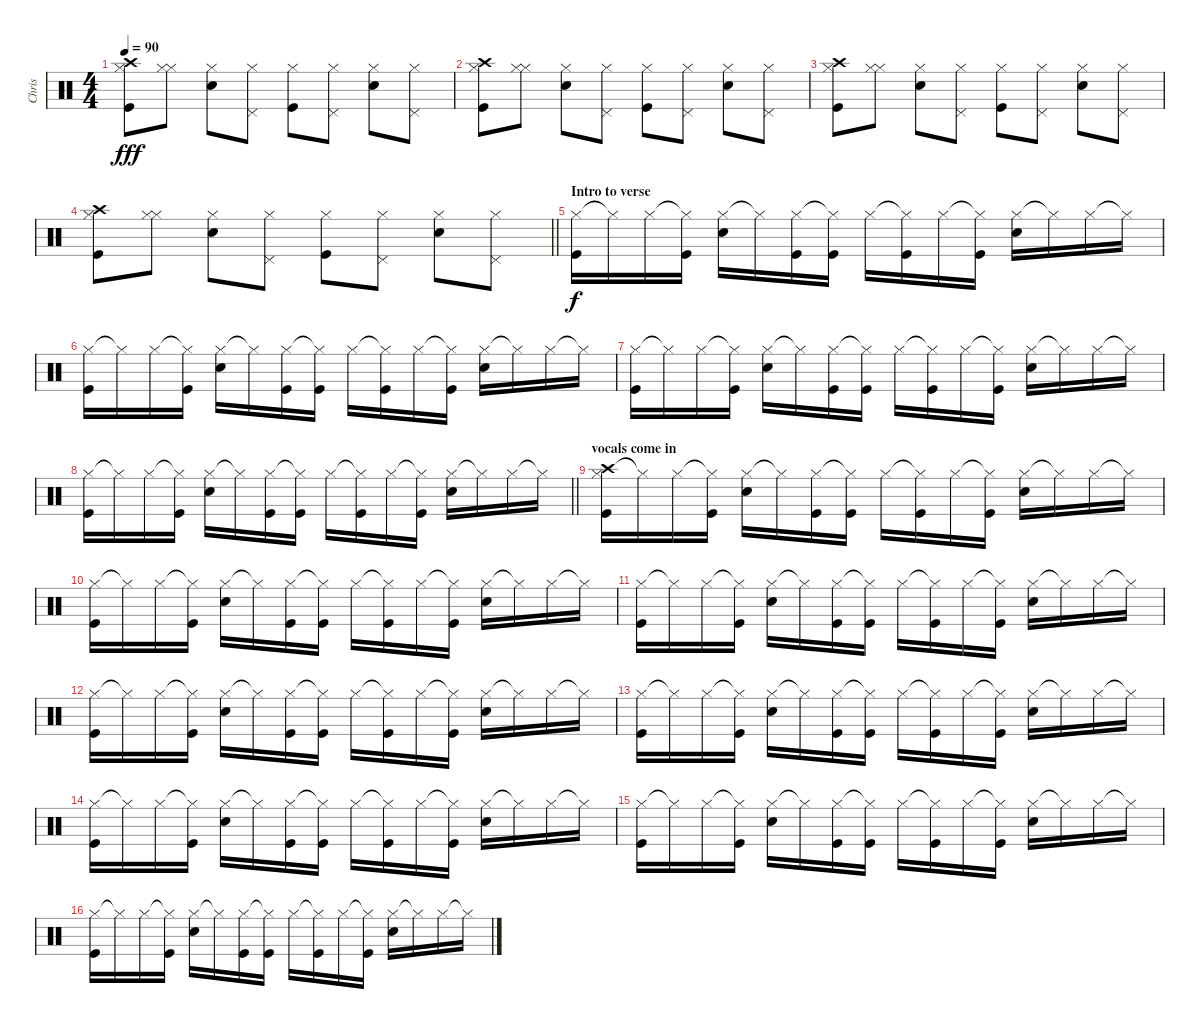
\track ("Chris" "Chris") {instrument percussion}
\staff {score}
\articulation defaults
\ts (4 4)
\tempo 90
\clef neutral
\ks c
("Crash high (hit)" "Hi-Hat (closed)" "Kick (hit)").8{dy fff} ("Hi-Hat (closed)" "Hi-Hat (closed)").8 ("Hi-Hat (closed)" "Snare (hit) 2").8 ("Hi-Hat (closed)" "Pedal Hi-Hat (hit)").8 ("Hi-Hat (closed)" "Kick (hit)").8 ("Hi-Hat (closed)" "Pedal Hi-Hat (hit)").8 ("Hi-Hat (closed)" "Snare (hit) 2").8 ("Hi-Hat (closed)" "Pedal Hi-Hat (hit)").8 |
("Crash high (hit)" "Hi-Hat (closed)" "Kick (hit)").8 ("Hi-Hat (closed)" "Hi-Hat (closed)").8 ("Hi-Hat (closed)" "Snare (hit) 2").8 ("Hi-Hat (closed)" "Pedal Hi-Hat (hit)").8 ("Hi-Hat (closed)" "Kick (hit)").8 ("Hi-Hat (closed)" "Pedal Hi-Hat (hit)").8 ("Hi-Hat (closed)" "Snare (hit) 2").8 ("Hi-Hat (closed)" "Pedal Hi-Hat (hit)").8 |
("Crash high (hit)" "Hi-Hat (closed)" "Kick (hit)").8 ("Hi-Hat (closed)" "Hi-Hat (closed)").8 ("Hi-Hat (closed)" "Snare (hit) 2").8 ("Hi-Hat (closed)" "Pedal Hi-Hat (hit)").8 ("Hi-Hat (closed)" "Kick (hit)").8 ("Hi-Hat (closed)" "Pedal Hi-Hat (hit)").8 ("Hi-Hat (closed)" "Snare (hit) 2").8 ("Hi-Hat (closed)" "Pedal Hi-Hat (hit)").8 |
\barLineRight lightlight
("Crash high (hit)" "Hi-Hat (closed)" "Kick (hit)").8 ("Hi-Hat (closed)" "Hi-Hat (closed)").8 ("Hi-Hat (closed)" "Snare (hit) 2").8 ("Hi-Hat (closed)" "Pedal Hi-Hat (hit)").8 ("Hi-Hat (closed)" "Kick (hit)").8 ("Hi-Hat (closed)" "Pedal Hi-Hat (hit)").8 ("Hi-Hat (closed)" "Snare (hit) 2").8 ("Hi-Hat (closed)" "Pedal Hi-Hat (hit)").8 |
\section ("" "Intro to verse")
("Hi-Hat (closed)" "Kick (hit)").16{dy f} "Hi-Hat (closed)"{t}.16 "Hi-Hat (closed)".16 ("Hi-Hat (closed)"{t} "Kick (hit)").16 ("Hi-Hat (closed)" "Snare (hit) 2").16 "Hi-Hat (closed)"{t}.16 ("Hi-Hat (closed)" "Kick (hit)").16 ("Hi-Hat (closed)"{t} "Kick (hit)").16 "Hi-Hat (closed)".16 ("Hi-Hat (closed)"{t} "Kick (hit)").16 "Hi-Hat (closed)".16 ("Hi-Hat (closed)"{t} "Kick (hit)").16 ("Hi-Hat (closed)" "Snare (hit) 2").16 "Hi-Hat (closed)"{t}.16 "Hi-Hat (closed)".16 "Hi-Hat (closed)"{t}.16 |
("Hi-Hat (closed)" "Kick (hit)").16 "Hi-Hat (closed)"{t}.16 "Hi-Hat (closed)".16 ("Hi-Hat (closed)"{t} "Kick (hit)").16 ("Hi-Hat (closed)" "Snare (hit) 2").16 "Hi-Hat (closed)"{t}.16 ("Hi-Hat (closed)" "Kick (hit)").16 ("Hi-Hat (closed)"{t} "Kick (hit)").16 "Hi-Hat (closed)".16 ("Hi-Hat (closed)"{t} "Kick (hit)").16 "Hi-Hat (closed)".16 ("Hi-Hat (closed)"{t} "Kick (hit)").16 ("Hi-Hat (closed)" "Snare (hit) 2").16 "Hi-Hat (closed)"{t}.16 "Hi-Hat (closed)".16 "Hi-Hat (closed)"{t}.16 |
("Hi-Hat (closed)" "Kick (hit)").16 "Hi-Hat (closed)"{t}.16 "Hi-Hat (closed)".16 ("Hi-Hat (closed)"{t} "Kick (hit)").16 ("Hi-Hat (closed)" "Snare (hit) 2").16 "Hi-Hat (closed)"{t}.16 ("Hi-Hat (closed)" "Kick (hit)").16 ("Hi-Hat (closed)"{t} "Kick (hit)").16 "Hi-Hat (closed)".16 ("Hi-Hat (closed)"{t} "Kick (hit)").16 "Hi-Hat (closed)".16 ("Hi-Hat (closed)"{t} "Kick (hit)").16 ("Hi-Hat (closed)" "Snare (hit) 2").16 "Hi-Hat (closed)"{t}.16 "Hi-Hat (closed)".16 "Hi-Hat (closed)"{t}.16 |
\barLineRight lightlight
("Hi-Hat (closed)" "Kick (hit)").16 "Hi-Hat (closed)"{t}.16 "Hi-Hat (closed)".16 ("Hi-Hat (closed)"{t} "Kick (hit)").16 ("Hi-Hat (closed)" "Snare (hit) 2").16 "Hi-Hat (closed)"{t}.16 ("Hi-Hat (closed)" "Kick (hit)").16 ("Hi-Hat (closed)"{t} "Kick (hit)").16 "Hi-Hat (closed)".16 ("Hi-Hat (closed)"{t} "Kick (hit)").16 "Hi-Hat (closed)".16 ("Hi-Hat (closed)"{t} "Kick (hit)").16 ("Hi-Hat (closed)" "Snare (hit) 2").16 "Hi-Hat (closed)"{t}.16 "Hi-Hat (closed)".16 "Hi-Hat (closed)"{t}.16 |
\section ("" "vocals come in")
("Crash high (hit)" "Hi-Hat (closed)" "Kick (hit)").16 "Hi-Hat (closed)"{t}.16 "Hi-Hat (closed)".16 ("Hi-Hat (closed)"{t} "Kick (hit)").16 ("Hi-Hat (closed)" "Snare (hit) 2").16 "Hi-Hat (closed)"{t}.16 ("Hi-Hat (closed)" "Kick (hit)").16 ("Hi-Hat (closed)"{t} "Kick (hit)").16 "Hi-Hat (closed)".16 ("Hi-Hat (closed)"{t} "Kick (hit)").16 "Hi-Hat (closed)".16 ("Hi-Hat (closed)"{t} "Kick (hit)").16 ("Hi-Hat (closed)" "Snare (hit) 2").16 "Hi-Hat (closed)"{t}.16 "Hi-Hat (closed)".16 "Hi-Hat (closed)"{t}.16 |
("Hi-Hat (closed)" "Kick (hit)").16 "Hi-Hat (closed)"{t}.16 "Hi-Hat (closed)".16 ("Hi-Hat (closed)"{t} "Kick (hit)").16 ("Hi-Hat (closed)" "Snare (hit) 2").16 "Hi-Hat (closed)"{t}.16 ("Hi-Hat (closed)" "Kick (hit)").16 ("Hi-Hat (closed)"{t} "Kick (hit)").16 "Hi-Hat (closed)".16 ("Hi-Hat (closed)"{t} "Kick (hit)").16 "Hi-Hat (closed)".16 ("Hi-Hat (closed)"{t} "Kick (hit)").16 ("Hi-Hat (closed)" "Snare (hit) 2").16 "Hi-Hat (closed)"{t}.16 "Hi-Hat (closed)".16 "Hi-Hat (closed)"{t}.16 |
("Hi-Hat (closed)" "Kick (hit)").16 "Hi-Hat (closed)"{t}.16 "Hi-Hat (closed)".16 ("Hi-Hat (closed)"{t} "Kick (hit)").16 ("Hi-Hat (closed)" "Snare (hit) 2").16 "Hi-Hat (closed)"{t}.16 ("Hi-Hat (closed)" "Kick (hit)").16 ("Hi-Hat (closed)"{t} "Kick (hit)").16 "Hi-Hat (closed)".16 ("Hi-Hat (closed)"{t} "Kick (hit)").16 "Hi-Hat (closed)".16 ("Hi-Hat (closed)"{t} "Kick (hit)").16 ("Hi-Hat (closed)" "Snare (hit) 2").16 "Hi-Hat (closed)"{t}.16 "Hi-Hat (closed)".16 "Hi-Hat (closed)"{t}.16 |
("Hi-Hat (closed)" "Kick (hit)").16 "Hi-Hat (closed)"{t}.16 "Hi-Hat (closed)".16 ("Hi-Hat (closed)"{t} "Kick (hit)").16 ("Hi-Hat (closed)" "Snare (hit) 2").16 "Hi-Hat (closed)"{t}.16 ("Hi-Hat (closed)" "Kick (hit)").16 ("Hi-Hat (closed)"{t} "Kick (hit)").16 "Hi-Hat (closed)".16 ("Hi-Hat (closed)"{t} "Kick (hit)").16 "Hi-Hat (closed)".16 ("Hi-Hat (closed)"{t} "Kick (hit)").16 ("Hi-Hat (closed)" "Snare (hit) 2").16 "Hi-Hat (closed)"{t}.16 "Hi-Hat (closed)".16 "Hi-Hat (closed)"{t}.16 |
("Hi-Hat (closed)" "Kick (hit)").16 "Hi-Hat (closed)"{t}.16 "Hi-Hat (closed)".16 ("Hi-Hat (closed)"{t} "Kick (hit)").16 ("Hi-Hat (closed)" "Snare (hit) 2").16 "Hi-Hat (closed)"{t}.16 ("Hi-Hat (closed)" "Kick (hit)").16 ("Hi-Hat (closed)"{t} "Kick (hit)").16 "Hi-Hat (closed)".16 ("Hi-Hat (closed)"{t} "Kick (hit)").16 "Hi-Hat (closed)".16 ("Hi-Hat (closed)"{t} "Kick (hit)").16 ("Hi-Hat (closed)" "Snare (hit) 2").16 "Hi-Hat (closed)"{t}.16 "Hi-Hat (closed)".16 "Hi-Hat (closed)"{t}.16 |
("Hi-Hat (closed)" "Kick (hit)").16 "Hi-Hat (closed)"{t}.16 "Hi-Hat (closed)".16 ("Hi-Hat (closed)"{t} "Kick (hit)").16 ("Hi-Hat (closed)" "Snare (hit) 2").16 "Hi-Hat (closed)"{t}.16 ("Hi-Hat (closed)" "Kick (hit)").16 ("Hi-Hat (closed)"{t} "Kick (hit)").16 "Hi-Hat (closed)".16 ("Hi-Hat (closed)"{t} "Kick (hit)").16 "Hi-Hat (closed)".16 ("Hi-Hat (closed)"{t} "Kick (hit)").16 ("Hi-Hat (closed)" "Snare (hit) 2").16 "Hi-Hat (closed)"{t}.16 "Hi-Hat (closed)".16 "Hi-Hat (closed)"{t}.16 |
("Hi-Hat (closed)" "Kick (hit)").16 "Hi-Hat (closed)"{t}.16 "Hi-Hat (closed)".16 ("Hi-Hat (closed)"{t} "Kick (hit)").16 ("Hi-Hat (closed)" "Snare (hit) 2").16 "Hi-Hat (closed)"{t}.16 ("Hi-Hat (closed)" "Kick (hit)").16 ("Hi-Hat (closed)"{t} "Kick (hit)").16 "Hi-Hat (closed)".16 ("Hi-Hat (closed)"{t} "Kick (hit)").16 "Hi-Hat (closed)".16 ("Hi-Hat (closed)"{t} "Kick (hit)").16 ("Hi-Hat (closed)" "Snare (hit) 2").16 "Hi-Hat (closed)"{t}.16 "Hi-Hat (closed)".16 "Hi-Hat (closed)"{t}.16 |
("Hi-Hat (closed)" "Kick (hit)").16 "Hi-Hat (closed)"{t}.16 "Hi-Hat (closed)".16 ("Hi-Hat (closed)"{t} "Kick (hit)").16 ("Hi-Hat (closed)" "Snare (hit) 2").16 "Hi-Hat (closed)"{t}.16 ("Hi-Hat (closed)" "Kick (hit)").16 ("Hi-Hat (closed)"{t} "Kick (hit)").16 "Hi-Hat (closed)".16 ("Hi-Hat (closed)"{t} "Kick (hit)").16 "Hi-Hat (closed)".16 ("Hi-Hat (closed)"{t} "Kick (hit)").16 ("Hi-Hat (closed)" "Snare (hit) 2").16 "Hi-Hat (closed)"{t}.16 "Hi-Hat (closed)".16 "Hi-Hat (closed)"{t}.16
